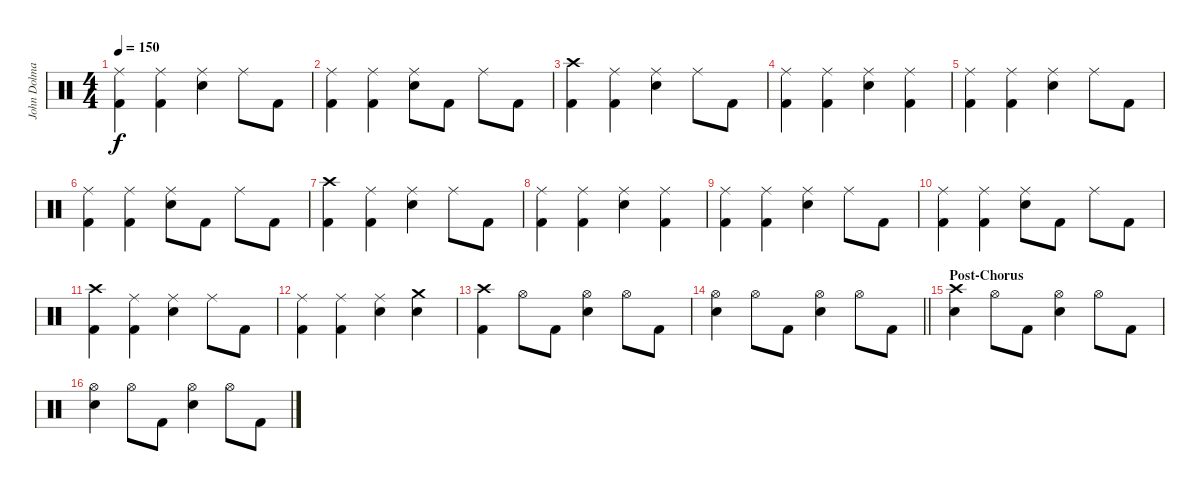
\track ("John Dolmayan(Drums)" "John Dolma") {instrument percussion}
\staff {score}
\articulation defaults
\ts (4 4)
\tempo 150
\clef neutral
\ks c
("Ride (middle)" "Kick (hit) 2").4{dy f} ("Ride (middle)" "Kick (hit) 2").4 ("Ride (middle)" "Snare (hit) 2").4 "Ride (middle)".8 "Kick (hit) 2".8 |
("Ride (middle)" "Kick (hit) 2").4 ("Ride (middle)" "Kick (hit) 2").4 ("Ride (middle)" "Snare (hit) 2").8 "Kick (hit) 2".8 "Ride (middle)".8 "Kick (hit) 2".8 |
("Crash high (hit)" "Kick (hit) 2").4 ("Ride (middle)" "Kick (hit) 2").4 ("Ride (middle)" "Snare (hit) 2").4 "Ride (middle)".8 "Kick (hit) 2".8 |
("Ride (middle)" "Kick (hit) 2").4 ("Ride (middle)" "Kick (hit) 2").4 ("Ride (middle)" "Snare (hit) 2").4 ("Ride (middle)" "Kick (hit) 2").4 |
("Ride (middle)" "Kick (hit) 2").4 ("Ride (middle)" "Kick (hit) 2").4 ("Ride (middle)" "Snare (hit) 2").4 "Ride (middle)".8 "Kick (hit) 2".8 |
("Ride (middle)" "Kick (hit) 2").4 ("Ride (middle)" "Kick (hit) 2").4 ("Ride (middle)" "Snare (hit) 2").8 "Kick (hit) 2".8 "Ride (middle)".8 "Kick (hit) 2".8 |
("Crash high (hit)" "Kick (hit) 2").4 ("Ride (middle)" "Kick (hit) 2").4 ("Ride (middle)" "Snare (hit) 2").4 "Ride (middle)".8 "Kick (hit) 2".8 |
("Ride (middle)" "Kick (hit) 2").4 ("Ride (middle)" "Kick (hit) 2").4 ("Ride (middle)" "Snare (hit) 2").4 ("Ride (middle)" "Kick (hit) 2").4 |
("Ride (middle)" "Kick (hit) 2").4 ("Ride (middle)" "Kick (hit) 2").4 ("Ride (middle)" "Snare (hit) 2").4 "Ride (middle)".8 "Kick (hit) 2".8 |
("Ride (middle)" "Kick (hit) 2").4 ("Ride (middle)" "Kick (hit) 2").4 ("Ride (middle)" "Snare (hit) 2").8 "Kick (hit) 2".8 "Ride (middle)".8 "Kick (hit) 2".8 |
("Crash high (hit)" "Kick (hit) 2").4 ("Ride (middle)" "Kick (hit) 2").4 ("Ride (middle)" "Snare (hit) 2").4 "Ride (middle)".8 "Kick (hit) 2".8 |
("Ride (middle)" "Kick (hit) 2").4 ("Ride (middle)" "Kick (hit) 2").4 ("Ride (middle)" "Snare (hit) 2").4 ("Crash medium (hit)" "Snare (hit) 2").4 |
("Crash high (hit)" "Kick (hit) 2").4 "Hi-Hat (open)".8 "Kick (hit) 2".8 ("Hi-Hat (open)" "Snare (hit) 2").4 "Hi-Hat (open)".8 "Kick (hit) 2".8 |
\barLineRight lightlight
("Hi-Hat (open)" "Snare (hit) 2").4 "Hi-Hat (open)".8 "Kick (hit) 2".8 ("Hi-Hat (open)" "Snare (hit) 2").4 "Hi-Hat (open)".8 "Kick (hit) 2".8 |
\section ("" "Post-Chorus")
("Crash high (hit)" "Snare (hit) 2").4 "Hi-Hat (open)".8 "Kick (hit) 2".8 ("Hi-Hat (open)" "Snare (hit) 2").4 "Hi-Hat (open)".8 "Kick (hit) 2".8 |
("Hi-Hat (open)" "Snare (hit) 2").4 "Hi-Hat (open)".8 "Kick (hit) 2".8 ("Hi-Hat (open)" "Snare (hit) 2").4 "Hi-Hat (open)".8 "Kick (hit) 2".8
